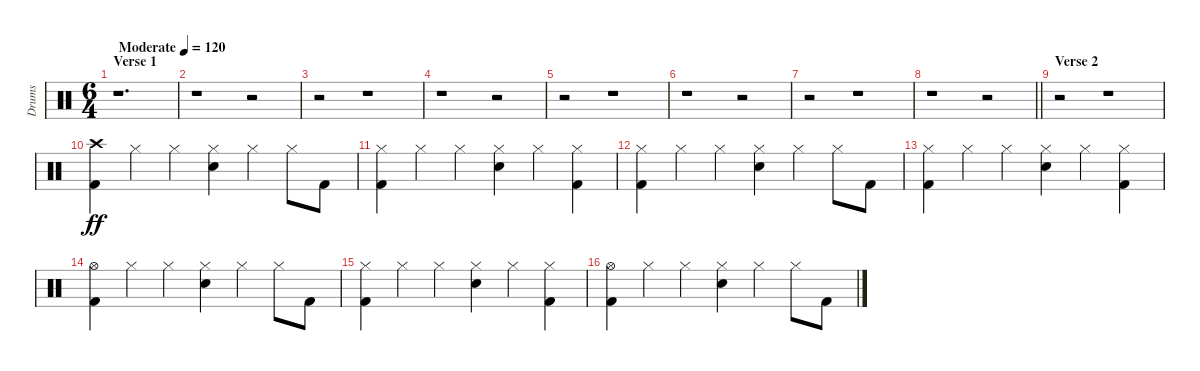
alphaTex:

\track ("Drums" "Drums") {instrument percussion}
\staff {score}
\articulation defaults
\ts (6 4)
\section ("" "Verse 1")
\tempo (120 "Moderate")
\clef neutral
\ks c
r.1{d dy ff} |
r.1 r.2 |
r.2 r.1 |
r.1 r.2 |
r.2 r.1 |
r.1 r.2 |
r.2 r.1 |
\barLineRight lightlight
r.1 r.2 |
\section ("" "Verse 2")
r.2 r.1 |
("Crash high (hit)" "Kick (hit) 2").4 "Hi-Hat (closed)".4 "Hi-Hat (closed)".4 ("Hi-Hat (closed)" "Electric Snare (hit)").4 "Hi-Hat (closed)".4 "Hi-Hat (closed)".8 "Kick (hit) 2".8 |
("Hi-Hat (closed)" "Kick (hit) 2").4 "Hi-Hat (closed)".4 "Hi-Hat (closed)".4 ("Hi-Hat (closed)" "Electric Snare (hit)").4 "Hi-Hat (closed)".4 ("Hi-Hat (closed)" "Kick (hit) 2").4 |
("Hi-Hat (closed)" "Kick (hit) 2").4 "Hi-Hat (closed)".4 "Hi-Hat (closed)".4 ("Hi-Hat (closed)" "Electric Snare (hit)").4 "Hi-Hat (closed)".4 "Hi-Hat (closed)".8 "Kick (hit) 2".8 |
("Hi-Hat (closed)" "Kick (hit) 2").4 "Hi-Hat (closed)".4 "Hi-Hat (closed)".4 ("Hi-Hat (closed)" "Electric Snare (hit)").4 "Hi-Hat (closed)".4 ("Hi-Hat (closed)" "Kick (hit) 2").4 |
("Hi-Hat (open)" "Kick (hit) 2").4 "Hi-Hat (closed)".4 "Hi-Hat (closed)".4 ("Hi-Hat (closed)" "Electric Snare (hit)").4 "Hi-Hat (closed)".4 "Hi-Hat (closed)".8 "Kick (hit) 2".8 |
("Hi-Hat (closed)" "Kick (hit) 2").4 "Hi-Hat (closed)".4 "Hi-Hat (closed)".4 ("Hi-Hat (closed)" "Electric Snare (hit)").4 "Hi-Hat (closed)".4 ("Hi-Hat (closed)" "Kick (hit) 2").4 |
("Hi-Hat (open)" "Kick (hit) 2").4 "Hi-Hat (closed)".4 "Hi-Hat (closed)".4 ("Hi-Hat (closed)" "Electric Snare (hit)").4 "Hi-Hat (closed)".4 "Hi-Hat (closed)".8 "Kick (hit) 2".8
